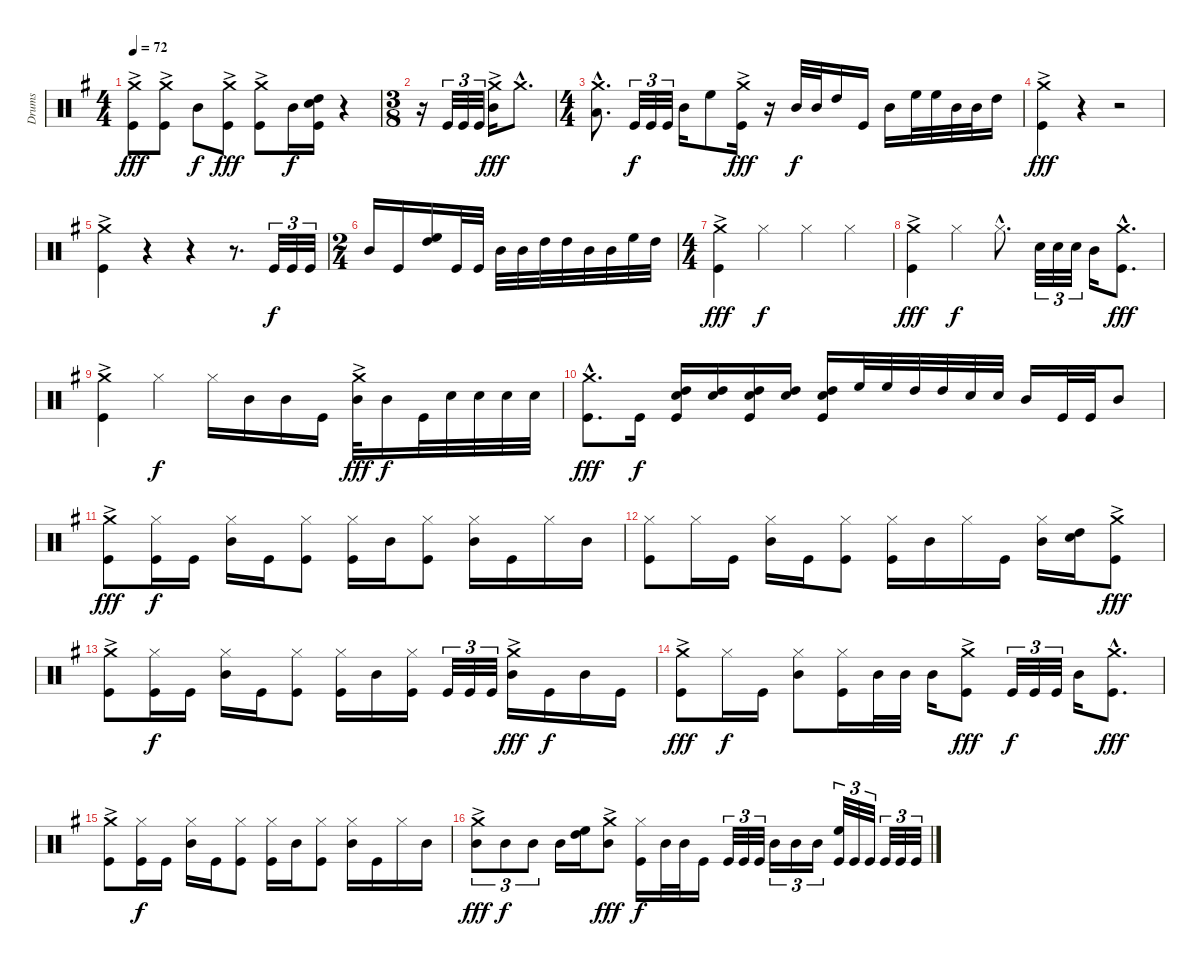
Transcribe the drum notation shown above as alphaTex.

\track ("Drums" "Drums") {instrument percussion}
\staff {score}
\articulation defaults
\ts (4 4)
\tempo 72
\clef neutral
\ks g
("Crash medium (hit)"{ac} "Kick (hit)").8{dy fff} ("Crash medium (hit)"{ac} "Kick (hit)").8 "Mid Tom (hit)".8{dy f} ("Crash medium (hit)"{ac} "Kick (hit)").8{dy fff} ("Crash medium (hit)"{ac} "Kick (hit)").8 "Mid Tom (hit)".16{dy f} ("High Tom (hit)" "Electric Snare (hit)" "Kick (hit)").16 r.4 |
\ts (3 8)
r.16 "Kick (hit)".32{tu (3 2)} "Kick (hit)".32{tu (3 2)} "Kick (hit)".32{tu (3 2)} ("Crash medium (hit)"{ac} "Mid Tom (hit)").16{dy fff} "Crash medium (hit)"{hac}.8{d} |
\ts (4 4)
("Crash medium (hit)"{hac} "Low Floor Tom (hit)"{hac}).8{d} "Kick (hit)".32{tu (3 2) dy f} "Kick (hit)".32{tu (3 2)} "Kick (hit)".32{tu (3 2)} "Mid Tom (hit)".16 "High Floor Tom (hit)".8 ("Crash medium (hit)"{ac} "Kick (hit)").16{dy fff} r.16 "Mid Tom (hit)".32{dy f} "Mid Tom (hit)".32 "High Tom (hit)".16 "Kick (hit)".16 "Mid Tom (hit)".16 "High Floor Tom (hit)".32 "High Floor Tom (hit)".32 "Mid Tom (hit)".32 "Mid Tom (hit)".32 "High Tom (hit)".16 |
("Crash medium (hit)"{ac} "Kick (hit)").4{dy fff} r.4 r.2 |
("Crash medium (hit)"{ac} "Kick (hit)").4 r.4 r.4 r.8{d} "Kick (hit)".32{tu (3 2) dy f} "Kick (hit)".32{tu (3 2)} "Kick (hit)".32{tu (3 2)} |
\ts (2 4)
"Mid Tom (hit)".16 "Kick (hit)".16 ("High Floor Tom (hit)" "High Tom (hit)").16 "Kick (hit)".32 "Kick (hit)".32 "Mid Tom (hit)".32 "Mid Tom (hit)".32 "High Tom (hit)".32 "High Tom (hit)".32 "Mid Tom (hit)".32 "Mid Tom (hit)".32 "High Floor Tom (hit)".32 "High Tom (hit)".32 |
\ts (4 4)
("Crash medium (hit)"{ac} "Kick (hit)").4{dy fff} "Hi-Hat (closed)".4{dy f} "Hi-Hat (closed)".4 "Hi-Hat (closed)".4 |
("Crash medium (hit)"{ac} "Kick (hit)").4{dy fff} "Hi-Hat (closed)".4{dy f} "Hi-Hat (closed)"{hac}.8{d} "Electric Snare (hit)".32{tu (3 2)} "Electric Snare (hit)".32{tu (3 2)} "Electric Snare (hit)".32{tu (3 2)} "Mid Tom (hit)".16 ("Crash medium (hit)"{hac} "Kick (hit)"{hac}).8{d dy fff} |
("Crash medium (hit)"{ac} "Kick (hit)").4 "Hi-Hat (closed)".4{dy f} "Hi-Hat (closed)".16 "Mid Tom (hit)".16 "Mid Tom (hit)".16 "Kick (hit)".16 ("Crash medium (hit)"{ac} "Mid Tom (hit)").32{dy fff} "Mid Tom (hit)".16{dy f} "Kick (hit)".32 "Electric Snare (hit)".32 "Electric Snare (hit)".32 "Snare (hit) 2".32 "Snare (hit) 2".32 |
("Crash medium (hit)"{hac} "Kick (hit)"{hac}).8{d dy fff} "Kick (hit)".16{dy f} ("High Tom (hit)" "Electric Snare (hit)" "Kick (hit)").16 ("High Tom (hit)" "Electric Snare (hit)").16 ("High Tom (hit)" "Electric Snare (hit)" "Kick (hit)").16 ("High Tom (hit)" "Electric Snare (hit)").16 ("High Tom (hit)" "Electric Snare (hit)" "Kick (hit)").16 "High Floor Tom (hit)".32 "High Floor Tom (hit)".32 "High Tom (hit)".32 "High Tom (hit)".32 "Electric Snare (hit)".32 "Electric Snare (hit)".32 "Mid Tom (hit)".16 "Kick (hit)".32 "Kick (hit)".32 "Mid Tom (hit)".8 |
("Crash medium (hit)"{ac} "Kick (hit)").8{dy fff} ("Hi-Hat (closed)" "Kick (hit)").16{dy f} "Kick (hit)".16 ("Hi-Hat (closed)" "Mid Tom (hit)").16 "Kick (hit)".16 ("Hi-Hat (closed)" "Kick (hit)").8 ("Hi-Hat (closed)" "Kick (hit)").16 "Mid Tom (hit)".16 ("Hi-Hat (closed)" "Kick (hit)").8 ("Hi-Hat (closed)" "Mid Tom (hit)").16 "Kick (hit)".16 "Hi-Hat (closed)".16 "Mid Tom (hit)".16 |
("Hi-Hat (closed)" "Kick (hit)").8 "Hi-Hat (closed)".16 "Kick (hit)".16 ("Hi-Hat (closed)" "Mid Tom (hit)").16 "Kick (hit)".16 ("Hi-Hat (closed)" "Kick (hit)").8 ("Hi-Hat (closed)" "Kick (hit)").16 "Mid Tom (hit)".16 "Hi-Hat (closed)".16 "Kick (hit)".16 ("Hi-Hat (closed)" "Mid Tom (hit)").16 ("High Tom (hit)" "Electric Snare (hit)").16 ("Crash medium (hit)"{ac} "Kick (hit)").8{dy fff} |
("Crash medium (hit)"{ac} "Kick (hit)").8 ("Hi-Hat (closed)" "Kick (hit)").16{dy f} "Kick (hit)".16 ("Hi-Hat (closed)" "Mid Tom (hit)").16 "Kick (hit)".16 ("Hi-Hat (closed)" "Kick (hit)").8 ("Hi-Hat (closed)" "Kick (hit)").16 "Mid Tom (hit)".16 ("Hi-Hat (closed)" "Kick (hit)").16 "Kick (hit)".32{tu (3 2)} "Kick (hit)".32{tu (3 2)} "Kick (hit)".32{tu (3 2)} ("Crash medium (hit)"{ac} "Mid Tom (hit)").16{dy fff} "Kick (hit)".16{dy f} "Mid Tom (hit)".16 "Kick (hit)".16 |
("Crash medium (hit)"{ac} "Kick (hit)").8{dy fff} "Hi-Hat (closed)".16{dy f} "Kick (hit)".16 ("Hi-Hat (closed)" "Mid Tom (hit)").8 ("Hi-Hat (closed)" "Kick (hit)").16 "Mid Tom (hit)".32 "Mid Tom (hit)".32 "Mid Tom (hit)".16 ("Crash medium (hit)"{ac} "Kick (hit)").8{dy fff} "Kick (hit)".32{tu (3 2) dy f} "Kick (hit)".32{tu (3 2)} "Kick (hit)".32{tu (3 2)} "Mid Tom (hit)".16 ("Crash medium (hit)"{hac} "Kick (hit)"{hac}).8{d dy fff} |
("Crash medium (hit)"{ac} "Kick (hit)").8 ("Hi-Hat (closed)" "Kick (hit)").16{dy f} "Kick (hit)".16 ("Hi-Hat (closed)" "Mid Tom (hit)").16 "Kick (hit)".16 ("Hi-Hat (closed)" "Kick (hit)").8 ("Hi-Hat (closed)" "Kick (hit)").16 "Mid Tom (hit)".16 ("Hi-Hat (closed)" "Kick (hit)").8 ("Hi-Hat (closed)" "Mid Tom (hit)").16 "Kick (hit)".16 "Hi-Hat (closed)".16 "Mid Tom (hit)".16 |
("Crash medium (hit)"{ac} "Mid Tom (hit)").8{tu (3 2) dy fff} "Mid Tom (hit)".8{tu (3 2) dy f} "Mid Tom (hit)".8{tu (3 2)} "Mid Tom (hit)".16 ("High Floor Tom (hit)" "High Tom (hit)").16 ("Crash medium (hit)"{ac} "Mid Tom (hit)").8{dy fff} ("Hi-Hat (closed)" "Kick (hit)").16{dy f} "Mid Tom (hit)".32 "Mid Tom (hit)".32 "Kick (hit)".16 "Kick (hit)".32{tu (3 2)} "Kick (hit)".32{tu (3 2)} "Kick (hit)".32{tu (3 2)} "Mid Tom (hit)".16{tu (3 2)} "Mid Tom (hit)".16{tu (3 2)} "Mid Tom (hit)".16{tu (3 2)} ("High Floor Tom (hit)" "Kick (hit)").32{tu (3 2)} "Kick (hit)".32{tu (3 2)} "Kick (hit)".32{tu (3 2)} "Kick (hit)".32{tu (3 2)} "Kick (hit)".32{tu (3 2)} "Kick (hit)".32{tu (3 2)}
